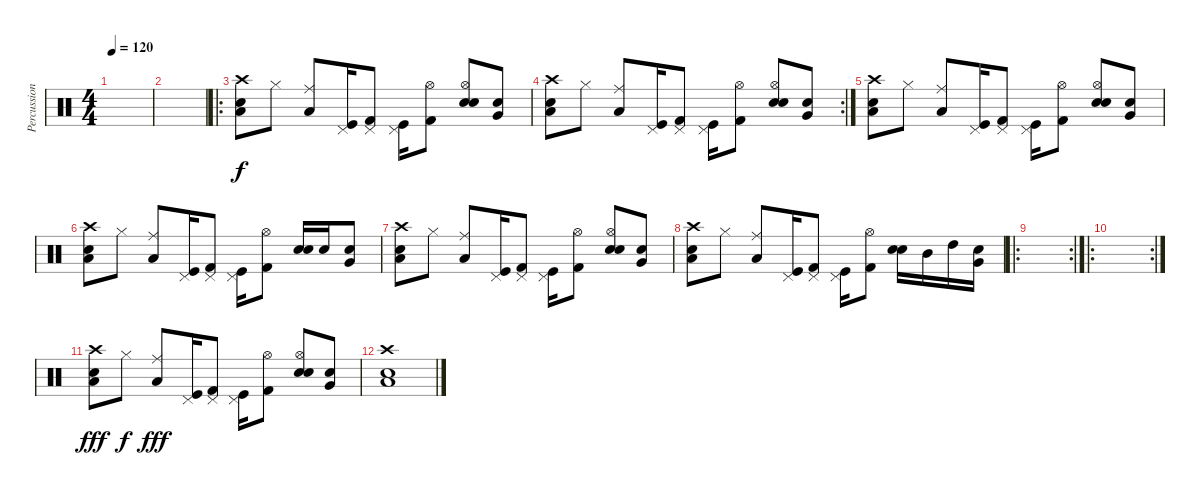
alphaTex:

\track ("Percussion" "Percussion") {instrument percussion}
\staff {score}
\articulation defaults
\ts (4 4)
\tempo 120
\clef neutral
\ks c
|
|
\ro
("Crash high (hit)" "Electric Snare (hit)" "Low Tom (hit)").8 "Hi-Hat (closed)".8 ("Low Floor Tom (hit)" "Ride (middle)").8 ("Kick (hit)" "Pedal Hi-Hat (hit)").16 ("Kick (hit) 2" "Pedal Hi-Hat (hit)").8 ("Kick (hit)" "Pedal Hi-Hat (hit)").16 ("Kick (hit) 2" "Hi-Hat (open)").8 ("Hi-Hat (open)" "Snare (hit) 2" "Electric Snare (hit)").8 ("Very Low Tom (hit)" "Electric Snare (hit)").8 |
\rc 2
("Crash high (hit)" "Electric Snare (hit)" "Low Tom (hit)").8 "Hi-Hat (closed)".8 ("Low Floor Tom (hit)" "Ride (middle)").8 ("Kick (hit)" "Pedal Hi-Hat (hit)").16 ("Kick (hit) 2" "Pedal Hi-Hat (hit)").8 ("Kick (hit)" "Pedal Hi-Hat (hit)").16 ("Kick (hit) 2" "Hi-Hat (open)").8 ("Hi-Hat (open)" "Snare (hit) 2" "Electric Snare (hit)").8 ("Very Low Tom (hit)" "Electric Snare (hit)").8 |
("Crash high (hit)" "Electric Snare (hit)" "Low Tom (hit)").8 "Hi-Hat (closed)".8 ("Low Floor Tom (hit)" "Ride (middle)").8 ("Kick (hit)" "Pedal Hi-Hat (hit)").16 ("Kick (hit) 2" "Pedal Hi-Hat (hit)").8 ("Kick (hit)" "Pedal Hi-Hat (hit)").16 ("Kick (hit) 2" "Hi-Hat (open)").8 ("Hi-Hat (open)" "Snare (hit) 2" "Electric Snare (hit)").8 ("Very Low Tom (hit)" "Electric Snare (hit)").8 |
("Crash high (hit)" "Electric Snare (hit)" "Low Tom (hit)").8 "Hi-Hat (closed)".8 ("Low Floor Tom (hit)" "Ride (middle)").8 ("Kick (hit)" "Pedal Hi-Hat (hit)").16 ("Kick (hit) 2" "Pedal Hi-Hat (hit)").8 ("Kick (hit)" "Pedal Hi-Hat (hit)").16 ("Kick (hit) 2" "Hi-Hat (open)").8 ("Snare (hit) 2" "Electric Snare (hit)").16 "Snare (hit) 2".16 ("Very Low Tom (hit)" "Electric Snare (hit)").8 |
("Crash high (hit)" "Electric Snare (hit)" "Low Tom (hit)").8 "Hi-Hat (closed)".8 ("Low Floor Tom (hit)" "Ride (middle)").8 ("Kick (hit)" "Pedal Hi-Hat (hit)").16 ("Kick (hit) 2" "Pedal Hi-Hat (hit)").8 ("Kick (hit)" "Pedal Hi-Hat (hit)").16 ("Kick (hit) 2" "Hi-Hat (open)").8 ("Hi-Hat (open)" "Snare (hit) 2" "Electric Snare (hit)").8 ("Very Low Tom (hit)" "Electric Snare (hit)").8 |
("Crash high (hit)" "Electric Snare (hit)" "Low Tom (hit)").8 "Hi-Hat (closed)".8 ("Low Floor Tom (hit)" "Ride (middle)").8 ("Kick (hit)" "Pedal Hi-Hat (hit)").16 ("Kick (hit) 2" "Pedal Hi-Hat (hit)").8 ("Kick (hit)" "Pedal Hi-Hat (hit)").16 ("Kick (hit) 2" "Hi-Hat (open)").8 ("Snare (hit) 2" "Electric Snare (hit)").16 "Mid Tom (hit)".16 "High Tom (hit)".16 ("Very Low Tom (hit)" "Electric Snare (hit)").16 |
\ro
\rc 2
|
\ro
\rc 2
|
("Crash high (hit)" "Electric Snare (hit)" "Low Tom (hit)").8{dy fff} "Hi-Hat (closed)".8{dy f} ("Low Floor Tom (hit)" "Ride (middle)").8{dy fff} ("Kick (hit)" "Pedal Hi-Hat (hit)").16 ("Kick (hit) 2" "Pedal Hi-Hat (hit)").8 ("Kick (hit)" "Pedal Hi-Hat (hit)").16 ("Kick (hit) 2" "Hi-Hat (open)").8 ("Hi-Hat (open)" "Snare (hit) 2" "Electric Snare (hit)").8 ("Very Low Tom (hit)" "Electric Snare (hit)").8 |
("Crash high (hit)" "Electric Snare (hit)" "Low Tom (hit)").1
